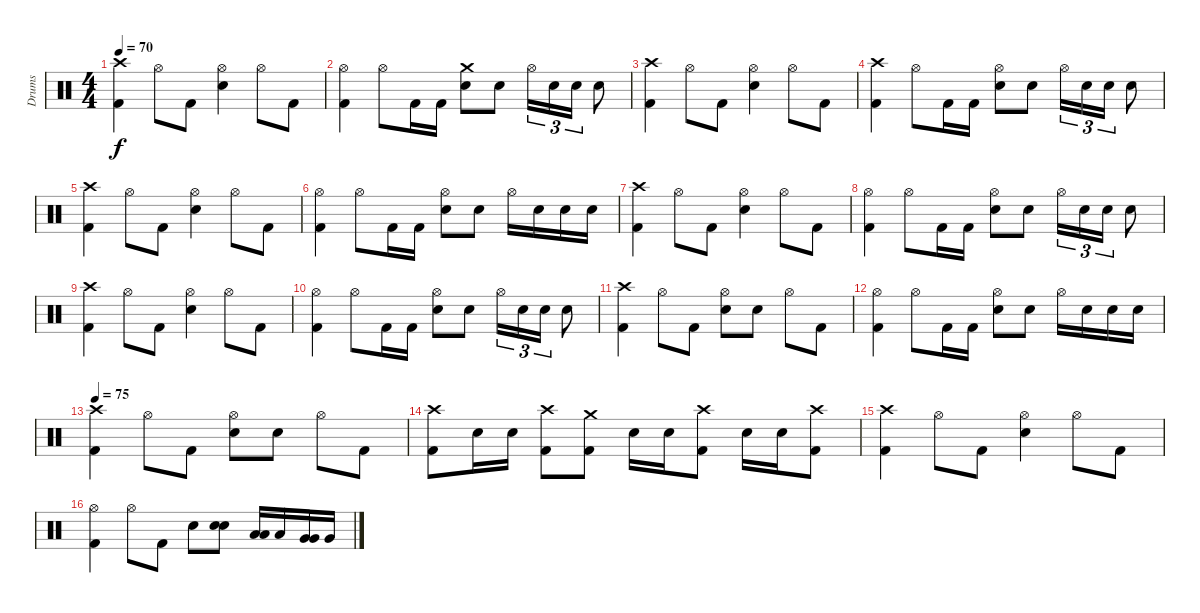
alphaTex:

\track ("Drums" "Drums") {instrument percussion}
\staff {score}
\articulation defaults
\ts (4 4)
\tempo 70
\clef neutral
\ks c
("Crash high (hit)" "Kick (hit) 2").4{dy f} "Hi-Hat (open)".8 "Kick (hit) 2".8 ("Hi-Hat (open)" "Electric Snare (hit)").4 "Hi-Hat (open)".8 "Kick (hit) 2".8 |
("Hi-Hat (open)" "Kick (hit) 2").4 "Hi-Hat (open)".8 "Kick (hit) 2".16 "Kick (hit) 2".16 ("Crash medium (hit)" "Electric Snare (hit)").8 "Electric Snare (hit)".8 "Hi-Hat (open)".16{tu (3 2)} "Electric Snare (hit)".16{tu (3 2)} "Electric Snare (hit)".16{tu (3 2)} "Electric Snare (hit)".8 |
("Crash high (hit)" "Kick (hit) 2").4 "Hi-Hat (open)".8 "Kick (hit) 2".8 ("Hi-Hat (open)" "Electric Snare (hit)").4 "Hi-Hat (open)".8 "Kick (hit) 2".8 |
("Crash high (hit)" "Kick (hit) 2").4 "Hi-Hat (open)".8 "Kick (hit) 2".16 "Kick (hit) 2".16 ("Hi-Hat (open)" "Electric Snare (hit)").8 "Electric Snare (hit)".8 "Hi-Hat (open)".16{tu (3 2)} "Electric Snare (hit)".16{tu (3 2)} "Electric Snare (hit)".16{tu (3 2)} "Electric Snare (hit)".8 |
("Crash high (hit)" "Kick (hit) 2").4 "Hi-Hat (open)".8 "Kick (hit) 2".8 ("Hi-Hat (open)" "Electric Snare (hit)").4 "Hi-Hat (open)".8 "Kick (hit) 2".8 |
("Hi-Hat (open)" "Kick (hit) 2").4 "Hi-Hat (open)".8 "Kick (hit) 2".16 "Kick (hit) 2".16 ("Hi-Hat (open)" "Electric Snare (hit)").8 "Electric Snare (hit)".8 "Hi-Hat (open)".16 "Electric Snare (hit)".16 "Electric Snare (hit)".16 "Electric Snare (hit)".16 |
("Crash high (hit)" "Kick (hit) 2").4 "Hi-Hat (open)".8 "Kick (hit) 2".8 ("Hi-Hat (open)" "Electric Snare (hit)").4 "Hi-Hat (open)".8 "Kick (hit) 2".8 |
("Hi-Hat (open)" "Kick (hit) 2").4 "Hi-Hat (open)".8 "Kick (hit) 2".16 "Kick (hit) 2".16 ("Hi-Hat (open)" "Electric Snare (hit)").8 "Electric Snare (hit)".8 "Hi-Hat (open)".16{tu (3 2)} "Electric Snare (hit)".16{tu (3 2)} "Electric Snare (hit)".16{tu (3 2)} "Electric Snare (hit)".8 |
("Crash high (hit)" "Kick (hit) 2").4 "Hi-Hat (open)".8 "Kick (hit) 2".8 ("Hi-Hat (open)" "Electric Snare (hit)").4 "Hi-Hat (open)".8 "Kick (hit) 2".8 |
("Hi-Hat (open)" "Kick (hit) 2").4 "Hi-Hat (open)".8 "Kick (hit) 2".16 "Kick (hit) 2".16 ("Hi-Hat (open)" "Electric Snare (hit)").8 "Electric Snare (hit)".8 "Hi-Hat (open)".16{tu (3 2)} "Electric Snare (hit)".16{tu (3 2)} "Electric Snare (hit)".16{tu (3 2)} "Electric Snare (hit)".8 |
("Crash high (hit)" "Kick (hit) 2").4 "Hi-Hat (open)".8 "Kick (hit) 2".8 ("Hi-Hat (open)" "Electric Snare (hit)").8 "Electric Snare (hit)".8 "Hi-Hat (open)".8 "Kick (hit) 2".8 |
("Hi-Hat (open)" "Kick (hit) 2").4 "Hi-Hat (open)".8 "Kick (hit) 2".16 "Kick (hit) 2".16 ("Hi-Hat (open)" "Electric Snare (hit)").8 "Electric Snare (hit)".8 "Hi-Hat (open)".16 "Electric Snare (hit)".16 "Electric Snare (hit)".16 "Electric Snare (hit)".16 |
\tempo 75
("Crash high (hit)" "Kick (hit) 2").4 "Hi-Hat (open)".8 "Kick (hit) 2".8 ("Hi-Hat (open)" "Electric Snare (hit)").8 "Electric Snare (hit)".8 "Hi-Hat (open)".8 "Kick (hit) 2".8 |
("Crash high (hit)" "Kick (hit) 2").8 "Electric Snare (hit)".16 "Electric Snare (hit)".16 ("Crash high (hit)" "Kick (hit) 2").8 ("Crash medium (hit)" "Kick (hit) 2").8 "Electric Snare (hit)".16 "Electric Snare (hit)".16 ("Crash high (hit)" "Kick (hit) 2").8 "Electric Snare (hit)".16 "Electric Snare (hit)".16 ("Crash high (hit)" "Kick (hit) 2").8 |
("Crash high (hit)" "Kick (hit) 2").4 "Hi-Hat (open)".8 "Kick (hit) 2".8 ("Hi-Hat (open)" "Electric Snare (hit)").4 "Hi-Hat (open)".8 "Kick (hit) 2".8 |
("Hi-Hat (open)" "Kick (hit) 2").4 "Hi-Hat (open)".8 "Kick (hit) 2".8 "Electric Snare (hit)".8 ("Electric Snare (hit)" "Electric Snare (hit)").8{bu 60} ("Low Tom (hit)" "Low Tom (hit)").16{bu 60} "Low Tom (hit)".16 ("Very Low Tom (hit)" "Very Low Tom (hit)").16{bu 60} "Very Low Tom (hit)".16
